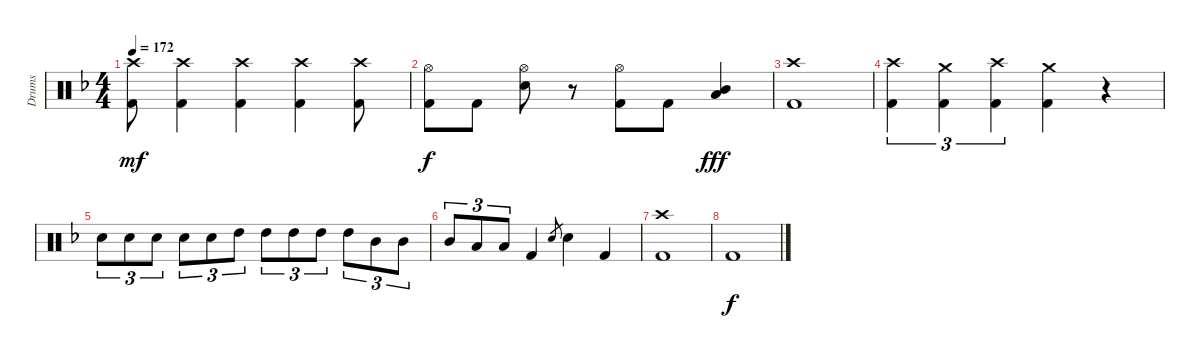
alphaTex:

\track ("Drums" "Drums") {instrument percussion}
\staff {score}
\articulation defaults
\ts (4 4)
\tempo 172
\clef neutral
\ks f
("Crash high (hit)" "Kick (hit) 2").8{dy mf} ("Crash high (hit)" "Kick (hit) 2").4 ("Crash high (hit)" "Kick (hit) 2").4 ("Crash high (hit)" "Kick (hit) 2").4 ("Crash high (hit)" "Kick (hit) 2").8 |
("Hi-Hat (open)" "Kick (hit) 2").8{dy f} "Kick (hit) 2".8 ("Hi-Hat (open)" "Electric Snare (hit)").8 r.8 ("Hi-Hat (open)" "Kick (hit) 2").8 "Kick (hit) 2".8 ("Low Tom (hit)" "Mid Tom (hit)").4{dy fff} |
("Crash high (hit)" "Kick (hit) 2").1 |
("Crash high (hit)" "Kick (hit) 2").4{tu (3 2)} ("Crash medium (hit)" "Kick (hit) 2").4{tu (3 2)} ("Crash high (hit)" "Kick (hit) 2").4{tu (3 2)} ("Crash medium (hit)" "Kick (hit) 2").4 r.4 |
"Electric Snare (hit)".8{tu (3 2)} "Electric Snare (hit)".8{tu (3 2)} "Electric Snare (hit)".8{tu (3 2)} "Electric Snare (hit)".8{tu (3 2)} "Electric Snare (hit)".8{tu (3 2)} "High Tom (hit)".8{tu (3 2)} "High Tom (hit)".8{tu (3 2)} "High Tom (hit)".8{tu (3 2)} "High Tom (hit)".8{tu (3 2)} "High Tom (hit)".8{tu (3 2)} "Mid Tom (hit)".8{tu (3 2)} "Mid Tom (hit)".8{tu (3 2)} |
"Mid Tom (hit)".8{tu (3 2)} "Low Tom (hit)".8{tu (3 2)} "Low Tom (hit)".8{tu (3 2)} "Kick (hit) 2".4 "Electric Snare (hit)".8{gr} "Electric Snare (hit)".4 "Kick (hit) 2".4 |
("Crash high (hit)" "Kick (hit) 2").1 |
"Kick (hit) 2".1{dy f}
